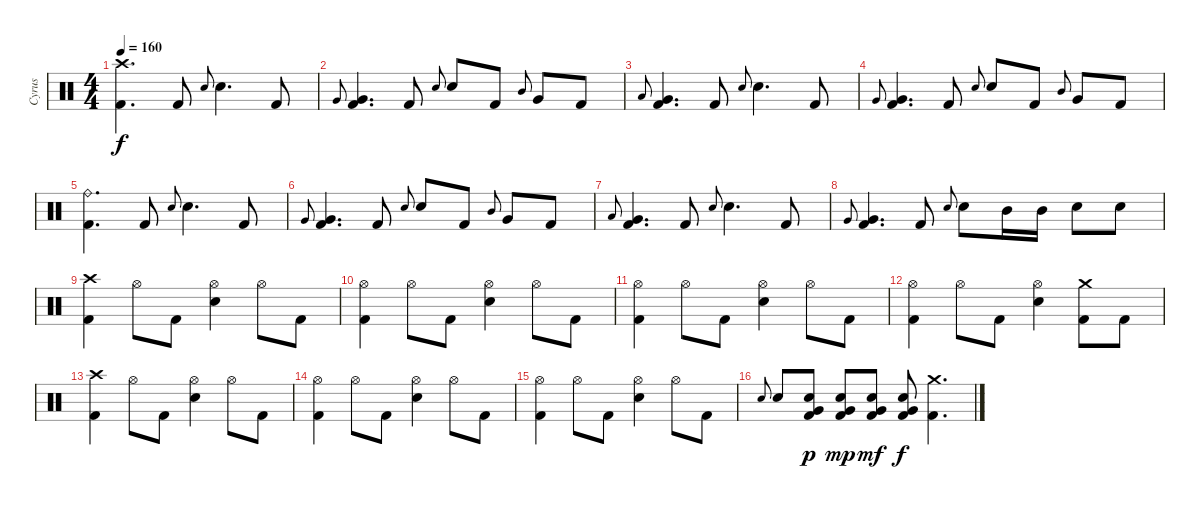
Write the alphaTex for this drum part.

\track ("Cyrus" "Cyrus") {instrument percussion}
\staff {score}
\articulation defaults
\ts (4 4)
\tempo 160
\clef neutral
\ks c
("Crash high (hit)" "Kick (hit) 2").4{d dy f} "Kick (hit) 2".8 "Snare (hit) 2".8{gr onbeat} "Snare (hit) 2".4{d} "Kick (hit) 2".8 |
"Very Low Tom (hit)".8{gr onbeat} ("Very Low Tom (hit)" "Kick (hit) 2").4{d} "Kick (hit) 2".8 "Snare (hit) 2".8{gr onbeat} "Snare (hit) 2".8 "Kick (hit) 2".8 "Mid Tom (hit)".8{gr onbeat} "Very Low Tom (hit)".8 "Kick (hit) 2".8 |
"Low Tom (hit)".8{gr onbeat} ("Very Low Tom (hit)" "Kick (hit) 2").4{d} "Kick (hit) 2".8 "Snare (hit) 2".8{gr onbeat} "Snare (hit) 2".4{d} "Kick (hit) 2".8 |
"Very Low Tom (hit)".8{gr onbeat} ("Very Low Tom (hit)" "Kick (hit) 2").4{d} "Kick (hit) 2".8 "Snare (hit) 2".8{gr onbeat} "Snare (hit) 2".8 "Kick (hit) 2".8 "Mid Tom (hit)".8{gr onbeat} "Very Low Tom (hit)".8 "Kick (hit) 2".8 |
("Ride (bell)" "Kick (hit) 2").4{d} "Kick (hit) 2".8 "Snare (hit) 2".8{gr onbeat} "Snare (hit) 2".4{d} "Kick (hit) 2".8 |
"Very Low Tom (hit)".8{gr onbeat} ("Very Low Tom (hit)" "Kick (hit) 2").4{d} "Kick (hit) 2".8 "Snare (hit) 2".8{gr onbeat} "Snare (hit) 2".8 "Kick (hit) 2".8 "Mid Tom (hit)".8{gr onbeat} "Very Low Tom (hit)".8 "Kick (hit) 2".8 |
"Low Tom (hit)".8{gr onbeat} ("Very Low Tom (hit)" "Kick (hit) 2").4{d} "Kick (hit) 2".8 "Snare (hit) 2".8{gr onbeat} "Snare (hit) 2".4{d} "Kick (hit) 2".8 |
"Very Low Tom (hit)".8{gr onbeat} ("Very Low Tom (hit)" "Kick (hit) 2").4{d} "Kick (hit) 2".8 "Snare (hit) 2".8{gr onbeat} "Snare (hit) 2".8 "Mid Tom (hit)".16 "Mid Tom (hit)".16 "Snare (hit) 2".8 "Snare (hit) 2".8 |
("Crash high (hit)" "Kick (hit) 2").4 "Hi-Hat (open)".8 "Kick (hit) 2".8 ("Hi-Hat (open)" "Snare (hit) 2").4 "Hi-Hat (open)".8 "Kick (hit) 2".8 |
("Hi-Hat (open)" "Kick (hit) 2").4 "Hi-Hat (open)".8 "Kick (hit) 2".8 ("Hi-Hat (open)" "Snare (hit) 2").4 "Hi-Hat (open)".8 "Kick (hit) 2".8 |
("Hi-Hat (open)" "Kick (hit) 2").4 "Hi-Hat (open)".8 "Kick (hit) 2".8 ("Hi-Hat (open)" "Snare (hit) 2").4 "Hi-Hat (open)".8 "Kick (hit) 2".8 |
("Hi-Hat (open)" "Kick (hit) 2").4 "Hi-Hat (open)".8 "Kick (hit) 2".8 ("Hi-Hat (open)" "Snare (hit) 2").4 ("Crash medium (hit)" "Kick (hit) 2").8 "Kick (hit) 2".8 |
("Crash high (hit)" "Kick (hit) 2").4 "Hi-Hat (open)".8 "Kick (hit) 2".8 ("Hi-Hat (open)" "Snare (hit) 2").4 "Hi-Hat (open)".8 "Kick (hit) 2".8 |
("Hi-Hat (open)" "Kick (hit) 2").4 "Hi-Hat (open)".8 "Kick (hit) 2".8 ("Hi-Hat (open)" "Snare (hit) 2").4 "Hi-Hat (open)".8 "Kick (hit) 2".8 |
("Hi-Hat (open)" "Kick (hit) 2").4 "Hi-Hat (open)".8 "Kick (hit) 2".8 ("Hi-Hat (open)" "Snare (hit) 2").4 "Hi-Hat (open)".8 "Kick (hit) 2".8 |
"Snare (hit) 2".8{gr onbeat} "Snare (hit) 2".8 ("Very Low Tom (hit)" "Snare (hit) 2" "Kick (hit) 2").8{dy p} ("Very Low Tom (hit)" "Snare (hit) 2" "Kick (hit) 2").8{dy mp} ("Very Low Tom (hit)" "Snare (hit) 2" "Kick (hit) 2").8{dy mf} ("Very Low Tom (hit)" "Snare (hit) 2" "Kick (hit) 2").8{dy f} ("Crash medium (hit)" "Kick (hit) 2").4{d}
